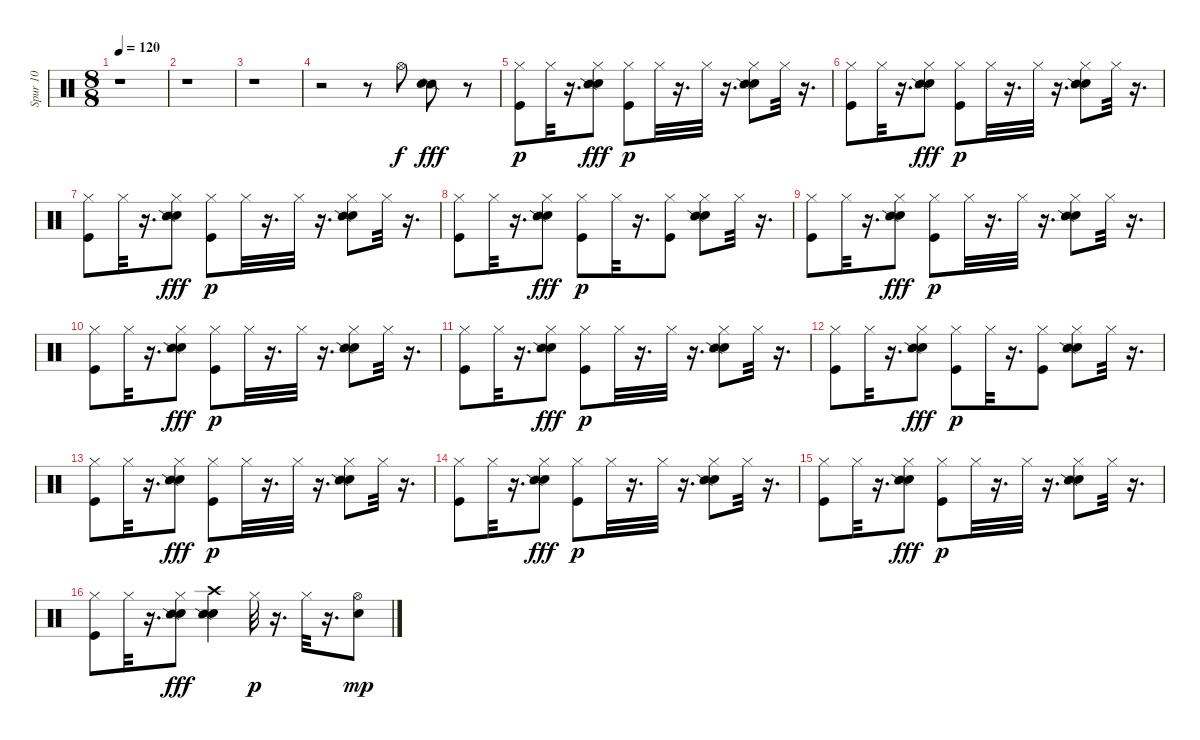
\track ("Spur 10" "Spur 10") {instrument percussion}
\staff {score}
\articulation defaults
\ts (8 8)
\tempo 120
\clef neutral
\ks c
r.1{dy f} |
r.1 |
r.1 |
r.2 r.8 "Hi-Hat (open)".8 ("Snare (side stick) 2" "Metronome (bell)").8{dy fff} r.8 |
("Hi-Hat (closed)" "Kick (hit)").8{dy p} "Hi-Hat (closed)".32 r.16{d} ("Metronome (bell)" "Hi-Hat (closed)" "Snare (side stick) 2").8{dy fff} ("Kick (hit)" "Hi-Hat (closed)").8{dy p} "Hi-Hat (closed)".32 r.16{d} "Hi-Hat (closed)".32 r.16{d} ("Metronome (bell)" "Snare (side stick) 2" "Hi-Hat (closed)").8 "Hi-Hat (closed)".32 r.16{d} |
("Hi-Hat (closed)" "Kick (hit)").8 "Hi-Hat (closed)".32 r.16{d} ("Metronome (bell)" "Hi-Hat (closed)" "Snare (side stick) 2").8{dy fff} ("Kick (hit)" "Hi-Hat (closed)").8{dy p} "Hi-Hat (closed)".32 r.16{d} "Hi-Hat (closed)".32 r.16{d} ("Metronome (bell)" "Snare (side stick) 2" "Hi-Hat (closed)").8 "Hi-Hat (closed)".32 r.16{d} |
("Hi-Hat (closed)" "Kick (hit)").8 "Hi-Hat (closed)".32 r.16{d} ("Metronome (bell)" "Hi-Hat (closed)" "Snare (side stick) 2").8{dy fff} ("Kick (hit)" "Hi-Hat (closed)").8{dy p} "Hi-Hat (closed)".32 r.16{d} "Hi-Hat (closed)".32 r.16{d} ("Metronome (bell)" "Snare (side stick) 2" "Hi-Hat (closed)").8 "Hi-Hat (closed)".32 r.16{d} |
("Hi-Hat (closed)" "Kick (hit)").8 "Hi-Hat (closed)".32 r.16{d} ("Metronome (bell)" "Hi-Hat (closed)" "Snare (side stick) 2").8{dy fff} ("Kick (hit)" "Hi-Hat (closed)").8{dy p} "Hi-Hat (closed)".32 r.16{d} ("Kick (hit)" "Hi-Hat (closed)").8 ("Metronome (bell)" "Snare (side stick) 2" "Hi-Hat (closed)").8 "Hi-Hat (closed)".32 r.16{d} |
("Hi-Hat (closed)" "Kick (hit)").8 "Hi-Hat (closed)".32 r.16{d} ("Metronome (bell)" "Hi-Hat (closed)" "Snare (side stick) 2").8{dy fff} ("Kick (hit)" "Hi-Hat (closed)").8{dy p} "Hi-Hat (closed)".32 r.16{d} "Hi-Hat (closed)".32 r.16{d} ("Metronome (bell)" "Snare (side stick) 2" "Hi-Hat (closed)").8 "Hi-Hat (closed)".32 r.16{d} |
("Hi-Hat (closed)" "Kick (hit)").8 "Hi-Hat (closed)".32 r.16{d} ("Metronome (bell)" "Hi-Hat (closed)" "Snare (side stick) 2").8{dy fff} ("Kick (hit)" "Hi-Hat (closed)").8{dy p} "Hi-Hat (closed)".32 r.16{d} "Hi-Hat (closed)".32 r.16{d} ("Metronome (bell)" "Snare (side stick) 2" "Hi-Hat (closed)").8 "Hi-Hat (closed)".32 r.16{d} |
("Hi-Hat (closed)" "Kick (hit)").8 "Hi-Hat (closed)".32 r.16{d} ("Metronome (bell)" "Hi-Hat (closed)" "Snare (side stick) 2").8{dy fff} ("Kick (hit)" "Hi-Hat (closed)").8{dy p} "Hi-Hat (closed)".32 r.16{d} "Hi-Hat (closed)".32 r.16{d} ("Metronome (bell)" "Snare (side stick) 2" "Hi-Hat (closed)").8 "Hi-Hat (closed)".32 r.16{d} |
("Hi-Hat (closed)" "Kick (hit)").8 "Hi-Hat (closed)".32 r.16{d} ("Metronome (bell)" "Hi-Hat (closed)" "Snare (side stick) 2").8{dy fff} ("Kick (hit)" "Hi-Hat (closed)").8{dy p} "Hi-Hat (closed)".32 r.16{d} ("Kick (hit)" "Hi-Hat (closed)").8 ("Metronome (bell)" "Snare (side stick) 2" "Hi-Hat (closed)").8 "Hi-Hat (closed)".32 r.16{d} |
("Hi-Hat (closed)" "Kick (hit)").8 "Hi-Hat (closed)".32 r.16{d} ("Metronome (bell)" "Hi-Hat (closed)" "Snare (side stick) 2").8{dy fff} ("Kick (hit)" "Hi-Hat (closed)").8{dy p} "Hi-Hat (closed)".32 r.16{d} "Hi-Hat (closed)".32 r.16{d} ("Metronome (bell)" "Snare (side stick) 2" "Hi-Hat (closed)").8 "Hi-Hat (closed)".32 r.16{d} |
("Hi-Hat (closed)" "Kick (hit)").8 "Hi-Hat (closed)".32 r.16{d} ("Metronome (bell)" "Hi-Hat (closed)" "Snare (side stick) 2").8{dy fff} ("Kick (hit)" "Hi-Hat (closed)").8{dy p} "Hi-Hat (closed)".32 r.16{d} "Hi-Hat (closed)".32 r.16{d} ("Metronome (bell)" "Snare (side stick) 2" "Hi-Hat (closed)").8 "Hi-Hat (closed)".32 r.16{d} |
("Hi-Hat (closed)" "Kick (hit)").8 "Hi-Hat (closed)".32 r.16{d} ("Metronome (bell)" "Hi-Hat (closed)" "Snare (side stick) 2").8{dy fff} ("Kick (hit)" "Hi-Hat (closed)").8{dy p} "Hi-Hat (closed)".32 r.16{d} "Hi-Hat (closed)".32 r.16{d} ("Metronome (bell)" "Snare (side stick) 2" "Hi-Hat (closed)").8 "Hi-Hat (closed)".32 r.16{d} |
("Hi-Hat (closed)" "Kick (hit)").8 "Hi-Hat (closed)".32 r.16{d} ("Metronome (bell)" "Hi-Hat (closed)" "Snare (side stick) 2").8{dy fff} ("Metronome (bell)" "Snare (side stick) 2" "Crash high (hit)").4 "Hi-Hat (closed)".32{dy p} r.16{d} "Hi-Hat (closed)".32 r.16{d} ("Metronome (bell)" "Hi-Hat (open)").8{dy mp}
